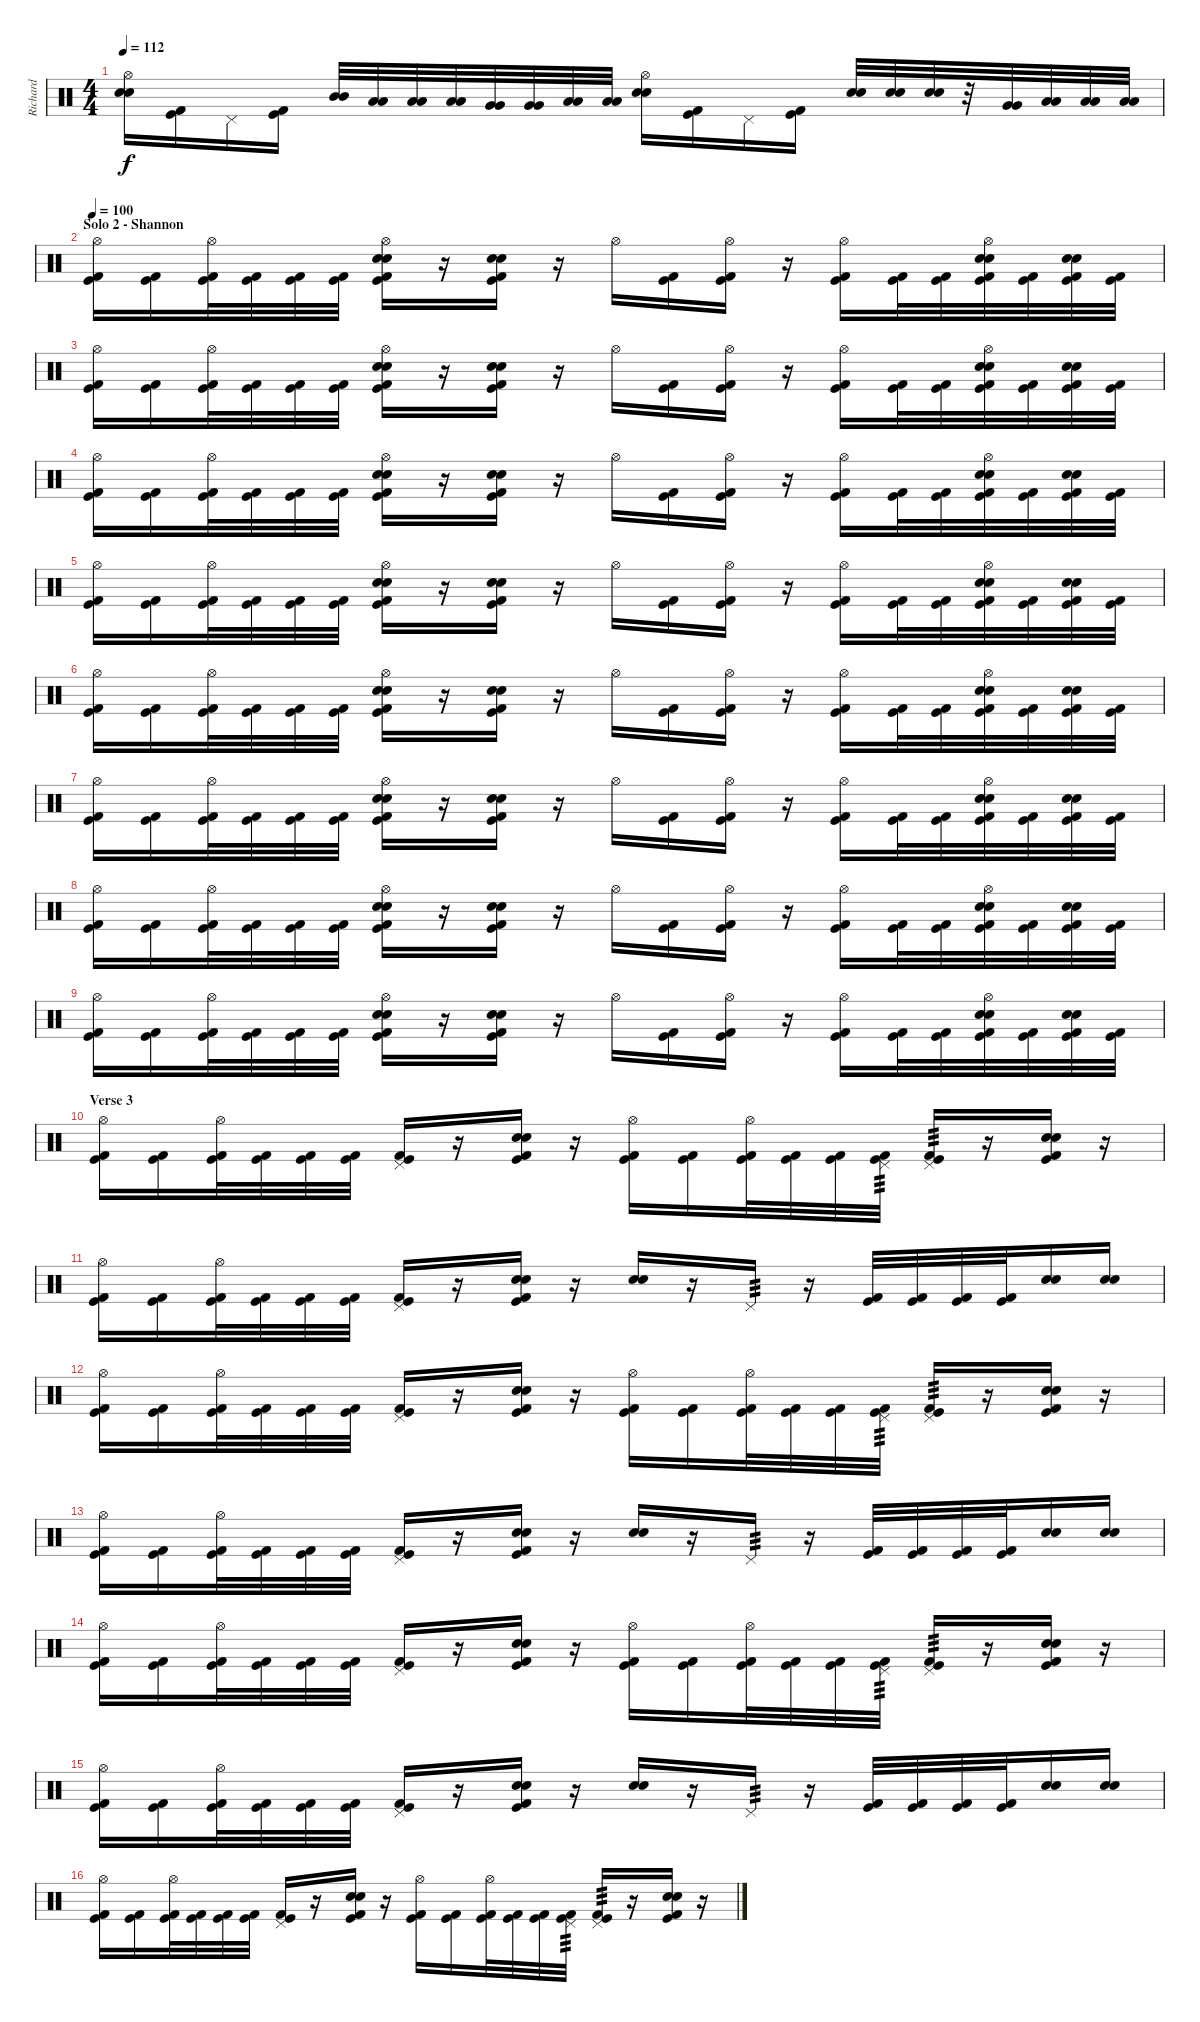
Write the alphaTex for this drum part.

\track ("Richard" "Richard") {instrument percussion}
\staff {score}
\articulation defaults
\ts (4 4)
\tempo 112
\clef neutral
\ks c
("Hi-Hat (open)" "Snare (hit) 2" "Electric Snare (hit)").16{dy f} ("Kick (hit)" "Kick (hit) 2").16 "Pedal Hi-Hat (hit)".16 ("Kick (hit)" "Kick (hit) 2").16 ("Mid Tom (hit)" "Mid Tom (hit)").32 ("Low Tom (hit)" "Low Tom (hit)").32 ("Low Tom (hit)" "Low Tom (hit)").32 ("Low Tom (hit)" "Low Tom (hit)").32 ("Very Low Tom (hit)" "Very Low Tom (hit)").32 ("Very Low Tom (hit)" "Very Low Tom (hit)").32 ("Low Floor Tom (hit)" "Low Floor Tom (hit)").32 ("Low Floor Tom (hit)" "Low Floor Tom (hit)").32 ("Hi-Hat (open)" "Snare (hit) 2" "Electric Snare (hit)").16 ("Kick (hit)" "Kick (hit) 2").16 "Pedal Hi-Hat (hit)".16 ("Kick (hit)" "Kick (hit) 2").16 ("Snare (hit) 2" "Electric Snare (hit)").32 ("Snare (hit) 2" "Electric Snare (hit)").32 ("Snare (hit) 2" "Electric Snare (hit)").32 r.32 ("Very Low Tom (hit)" "Very Low Tom (hit)").32 ("Low Floor Tom (hit)" "Low Floor Tom (hit)").32 ("Low Floor Tom (hit)" "Low Floor Tom (hit)").32 ("Low Floor Tom (hit)" "Low Floor Tom (hit)").32 |
\section ("" "Solo 2 - Shannon")
\tempo 100
("Hi-Hat (open)" "Kick (hit)" "Kick (hit) 2").16 ("Kick (hit)" "Kick (hit) 2").16 ("Hi-Hat (open)" "Kick (hit)" "Kick (hit) 2").32 ("Kick (hit)" "Kick (hit) 2").32 ("Kick (hit)" "Kick (hit) 2").32 ("Kick (hit)" "Kick (hit) 2").32 ("Hi-Hat (open)" "Snare (hit) 2" "Electric Snare (hit)" "Kick (hit)" "Kick (hit) 2").16 r.16 ("Snare (hit) 2" "Electric Snare (hit)" "Kick (hit)" "Kick (hit) 2").16 r.16 "Hi-Hat (open)".16 ("Kick (hit)" "Kick (hit) 2").16 ("Hi-Hat (open)" "Kick (hit)" "Kick (hit) 2").16 r.16 ("Hi-Hat (open)" "Kick (hit)" "Kick (hit) 2").16 ("Kick (hit)" "Kick (hit) 2").32 ("Kick (hit)" "Kick (hit) 2").32 ("Hi-Hat (open)" "Snare (hit) 2" "Electric Snare (hit)" "Kick (hit)" "Kick (hit) 2").32 ("Kick (hit)" "Kick (hit) 2").32 ("Snare (hit) 2" "Electric Snare (hit)" "Kick (hit)" "Kick (hit) 2").32 ("Kick (hit)" "Kick (hit) 2").32 |
("Hi-Hat (open)" "Kick (hit)" "Kick (hit) 2").16 ("Kick (hit)" "Kick (hit) 2").16 ("Hi-Hat (open)" "Kick (hit)" "Kick (hit) 2").32 ("Kick (hit)" "Kick (hit) 2").32 ("Kick (hit)" "Kick (hit) 2").32 ("Kick (hit)" "Kick (hit) 2").32 ("Hi-Hat (open)" "Snare (hit) 2" "Electric Snare (hit)" "Kick (hit)" "Kick (hit) 2").16 r.16 ("Snare (hit) 2" "Electric Snare (hit)" "Kick (hit)" "Kick (hit) 2").16 r.16 "Hi-Hat (open)".16 ("Kick (hit)" "Kick (hit) 2").16 ("Hi-Hat (open)" "Kick (hit)" "Kick (hit) 2").16 r.16 ("Hi-Hat (open)" "Kick (hit)" "Kick (hit) 2").16 ("Kick (hit)" "Kick (hit) 2").32 ("Kick (hit)" "Kick (hit) 2").32 ("Hi-Hat (open)" "Snare (hit) 2" "Electric Snare (hit)" "Kick (hit)" "Kick (hit) 2").32 ("Kick (hit)" "Kick (hit) 2").32 ("Snare (hit) 2" "Electric Snare (hit)" "Kick (hit)" "Kick (hit) 2").32 ("Kick (hit)" "Kick (hit) 2").32 |
("Hi-Hat (open)" "Kick (hit)" "Kick (hit) 2").16 ("Kick (hit)" "Kick (hit) 2").16 ("Hi-Hat (open)" "Kick (hit)" "Kick (hit) 2").32 ("Kick (hit)" "Kick (hit) 2").32 ("Kick (hit)" "Kick (hit) 2").32 ("Kick (hit)" "Kick (hit) 2").32 ("Hi-Hat (open)" "Snare (hit) 2" "Electric Snare (hit)" "Kick (hit)" "Kick (hit) 2").16 r.16 ("Snare (hit) 2" "Electric Snare (hit)" "Kick (hit)" "Kick (hit) 2").16 r.16 "Hi-Hat (open)".16 ("Kick (hit)" "Kick (hit) 2").16 ("Hi-Hat (open)" "Kick (hit)" "Kick (hit) 2").16 r.16 ("Hi-Hat (open)" "Kick (hit)" "Kick (hit) 2").16 ("Kick (hit)" "Kick (hit) 2").32 ("Kick (hit)" "Kick (hit) 2").32 ("Hi-Hat (open)" "Snare (hit) 2" "Electric Snare (hit)" "Kick (hit)" "Kick (hit) 2").32 ("Kick (hit)" "Kick (hit) 2").32 ("Snare (hit) 2" "Electric Snare (hit)" "Kick (hit)" "Kick (hit) 2").32 ("Kick (hit)" "Kick (hit) 2").32 |
("Hi-Hat (open)" "Kick (hit)" "Kick (hit) 2").16 ("Kick (hit)" "Kick (hit) 2").16 ("Hi-Hat (open)" "Kick (hit)" "Kick (hit) 2").32 ("Kick (hit)" "Kick (hit) 2").32 ("Kick (hit)" "Kick (hit) 2").32 ("Kick (hit)" "Kick (hit) 2").32 ("Hi-Hat (open)" "Snare (hit) 2" "Electric Snare (hit)" "Kick (hit)" "Kick (hit) 2").16 r.16 ("Snare (hit) 2" "Electric Snare (hit)" "Kick (hit)" "Kick (hit) 2").16 r.16 "Hi-Hat (open)".16 ("Kick (hit)" "Kick (hit) 2").16 ("Hi-Hat (open)" "Kick (hit)" "Kick (hit) 2").16 r.16 ("Hi-Hat (open)" "Kick (hit)" "Kick (hit) 2").16 ("Kick (hit)" "Kick (hit) 2").32 ("Kick (hit)" "Kick (hit) 2").32 ("Hi-Hat (open)" "Snare (hit) 2" "Electric Snare (hit)" "Kick (hit)" "Kick (hit) 2").32 ("Kick (hit)" "Kick (hit) 2").32 ("Snare (hit) 2" "Electric Snare (hit)" "Kick (hit)" "Kick (hit) 2").32 ("Kick (hit)" "Kick (hit) 2").32 |
("Hi-Hat (open)" "Kick (hit)" "Kick (hit) 2").16 ("Kick (hit)" "Kick (hit) 2").16 ("Hi-Hat (open)" "Kick (hit)" "Kick (hit) 2").32 ("Kick (hit)" "Kick (hit) 2").32 ("Kick (hit)" "Kick (hit) 2").32 ("Kick (hit)" "Kick (hit) 2").32 ("Hi-Hat (open)" "Snare (hit) 2" "Electric Snare (hit)" "Kick (hit)" "Kick (hit) 2").16 r.16 ("Snare (hit) 2" "Electric Snare (hit)" "Kick (hit)" "Kick (hit) 2").16 r.16 "Hi-Hat (open)".16 ("Kick (hit)" "Kick (hit) 2").16 ("Hi-Hat (open)" "Kick (hit)" "Kick (hit) 2").16 r.16 ("Hi-Hat (open)" "Kick (hit)" "Kick (hit) 2").16 ("Kick (hit)" "Kick (hit) 2").32 ("Kick (hit)" "Kick (hit) 2").32 ("Hi-Hat (open)" "Snare (hit) 2" "Electric Snare (hit)" "Kick (hit)" "Kick (hit) 2").32 ("Kick (hit)" "Kick (hit) 2").32 ("Snare (hit) 2" "Electric Snare (hit)" "Kick (hit)" "Kick (hit) 2").32 ("Kick (hit)" "Kick (hit) 2").32 |
("Hi-Hat (open)" "Kick (hit)" "Kick (hit) 2").16 ("Kick (hit)" "Kick (hit) 2").16 ("Hi-Hat (open)" "Kick (hit)" "Kick (hit) 2").32 ("Kick (hit)" "Kick (hit) 2").32 ("Kick (hit)" "Kick (hit) 2").32 ("Kick (hit)" "Kick (hit) 2").32 ("Hi-Hat (open)" "Snare (hit) 2" "Electric Snare (hit)" "Kick (hit)" "Kick (hit) 2").16 r.16 ("Snare (hit) 2" "Electric Snare (hit)" "Kick (hit)" "Kick (hit) 2").16 r.16 "Hi-Hat (open)".16 ("Kick (hit)" "Kick (hit) 2").16 ("Hi-Hat (open)" "Kick (hit)" "Kick (hit) 2").16 r.16 ("Hi-Hat (open)" "Kick (hit)" "Kick (hit) 2").16 ("Kick (hit)" "Kick (hit) 2").32 ("Kick (hit)" "Kick (hit) 2").32 ("Hi-Hat (open)" "Snare (hit) 2" "Electric Snare (hit)" "Kick (hit)" "Kick (hit) 2").32 ("Kick (hit)" "Kick (hit) 2").32 ("Snare (hit) 2" "Electric Snare (hit)" "Kick (hit)" "Kick (hit) 2").32 ("Kick (hit)" "Kick (hit) 2").32 |
("Hi-Hat (open)" "Kick (hit)" "Kick (hit) 2").16 ("Kick (hit)" "Kick (hit) 2").16 ("Hi-Hat (open)" "Kick (hit)" "Kick (hit) 2").32 ("Kick (hit)" "Kick (hit) 2").32 ("Kick (hit)" "Kick (hit) 2").32 ("Kick (hit)" "Kick (hit) 2").32 ("Hi-Hat (open)" "Snare (hit) 2" "Electric Snare (hit)" "Kick (hit)" "Kick (hit) 2").16 r.16 ("Snare (hit) 2" "Electric Snare (hit)" "Kick (hit)" "Kick (hit) 2").16 r.16 "Hi-Hat (open)".16 ("Kick (hit)" "Kick (hit) 2").16 ("Hi-Hat (open)" "Kick (hit)" "Kick (hit) 2").16 r.16 ("Hi-Hat (open)" "Kick (hit)" "Kick (hit) 2").16 ("Kick (hit)" "Kick (hit) 2").32 ("Kick (hit)" "Kick (hit) 2").32 ("Hi-Hat (open)" "Snare (hit) 2" "Electric Snare (hit)" "Kick (hit)" "Kick (hit) 2").32 ("Kick (hit)" "Kick (hit) 2").32 ("Snare (hit) 2" "Electric Snare (hit)" "Kick (hit)" "Kick (hit) 2").32 ("Kick (hit)" "Kick (hit) 2").32 |
("Hi-Hat (open)" "Kick (hit)" "Kick (hit) 2").16 ("Kick (hit)" "Kick (hit) 2").16 ("Hi-Hat (open)" "Kick (hit)" "Kick (hit) 2").32 ("Kick (hit)" "Kick (hit) 2").32 ("Kick (hit)" "Kick (hit) 2").32 ("Kick (hit)" "Kick (hit) 2").32 ("Hi-Hat (open)" "Snare (hit) 2" "Electric Snare (hit)" "Kick (hit)" "Kick (hit) 2").16 r.16 ("Snare (hit) 2" "Electric Snare (hit)" "Kick (hit)" "Kick (hit) 2").16 r.16 "Hi-Hat (open)".16 ("Kick (hit)" "Kick (hit) 2").16 ("Hi-Hat (open)" "Kick (hit)" "Kick (hit) 2").16 r.16 ("Hi-Hat (open)" "Kick (hit)" "Kick (hit) 2").16 ("Kick (hit)" "Kick (hit) 2").32 ("Kick (hit)" "Kick (hit) 2").32 ("Hi-Hat (open)" "Snare (hit) 2" "Electric Snare (hit)" "Kick (hit)" "Kick (hit) 2").32 ("Kick (hit)" "Kick (hit) 2").32 ("Snare (hit) 2" "Electric Snare (hit)" "Kick (hit)" "Kick (hit) 2").32 ("Kick (hit)" "Kick (hit) 2").32 |
\section ("" "Verse 3")
("Hi-Hat (open)" "Kick (hit)" "Kick (hit) 2").16 ("Kick (hit)" "Kick (hit) 2").16 ("Hi-Hat (open)" "Kick (hit)" "Kick (hit) 2").32 ("Kick (hit)" "Kick (hit) 2").32 ("Kick (hit)" "Kick (hit) 2").32 ("Kick (hit)" "Kick (hit) 2").32 ("Pedal Hi-Hat (hit)" "Kick (hit)" "Kick (hit) 2").16 r.16 ("Snare (hit) 2" "Electric Snare (hit)" "Kick (hit)" "Kick (hit) 2").16 r.16 ("Hi-Hat (open)" "Kick (hit)" "Kick (hit) 2").16 ("Kick (hit)" "Kick (hit) 2").16 ("Hi-Hat (open)" "Kick (hit)" "Kick (hit) 2").32 ("Kick (hit)" "Kick (hit) 2").32 ("Kick (hit)" "Kick (hit) 2").32 ("Pedal Hi-Hat (hit)" "Kick (hit)" "Kick (hit) 2").32{tp 3} ("Pedal Hi-Hat (hit)" "Kick (hit)" "Kick (hit) 2").16{tp 3} r.16 ("Snare (hit) 2" "Electric Snare (hit)" "Kick (hit)" "Kick (hit) 2").16 r.16 |
("Hi-Hat (open)" "Kick (hit)" "Kick (hit) 2").16 ("Kick (hit)" "Kick (hit) 2").16 ("Hi-Hat (open)" "Kick (hit)" "Kick (hit) 2").32 ("Kick (hit)" "Kick (hit) 2").32 ("Kick (hit)" "Kick (hit) 2").32 ("Kick (hit)" "Kick (hit) 2").32 ("Pedal Hi-Hat (hit)" "Kick (hit)" "Kick (hit) 2").16 r.16 ("Snare (hit) 2" "Electric Snare (hit)" "Kick (hit)" "Kick (hit) 2").16 r.16 ("Snare (hit) 2" "Electric Snare (hit)").16 r.16 "Pedal Hi-Hat (hit)".16{tp 3} r.16 ("Kick (hit)" "Kick (hit) 2").32 ("Kick (hit)" "Kick (hit) 2").32 ("Kick (hit)" "Kick (hit) 2").32 ("Kick (hit)" "Kick (hit) 2").32 ("Snare (hit) 2" "Electric Snare (hit)").16 ("Snare (hit) 2" "Electric Snare (hit)").16 |
("Hi-Hat (open)" "Kick (hit)" "Kick (hit) 2").16 ("Kick (hit)" "Kick (hit) 2").16 ("Hi-Hat (open)" "Kick (hit)" "Kick (hit) 2").32 ("Kick (hit)" "Kick (hit) 2").32 ("Kick (hit)" "Kick (hit) 2").32 ("Kick (hit)" "Kick (hit) 2").32 ("Pedal Hi-Hat (hit)" "Kick (hit)" "Kick (hit) 2").16 r.16 ("Snare (hit) 2" "Electric Snare (hit)" "Kick (hit)" "Kick (hit) 2").16 r.16 ("Hi-Hat (open)" "Kick (hit)" "Kick (hit) 2").16 ("Kick (hit)" "Kick (hit) 2").16 ("Hi-Hat (open)" "Kick (hit)" "Kick (hit) 2").32 ("Kick (hit)" "Kick (hit) 2").32 ("Kick (hit)" "Kick (hit) 2").32 ("Pedal Hi-Hat (hit)" "Kick (hit)" "Kick (hit) 2").32{tp 3} ("Pedal Hi-Hat (hit)" "Kick (hit)" "Kick (hit) 2").16{tp 3} r.16 ("Snare (hit) 2" "Electric Snare (hit)" "Kick (hit)" "Kick (hit) 2").16 r.16 |
("Hi-Hat (open)" "Kick (hit)" "Kick (hit) 2").16 ("Kick (hit)" "Kick (hit) 2").16 ("Hi-Hat (open)" "Kick (hit)" "Kick (hit) 2").32 ("Kick (hit)" "Kick (hit) 2").32 ("Kick (hit)" "Kick (hit) 2").32 ("Kick (hit)" "Kick (hit) 2").32 ("Pedal Hi-Hat (hit)" "Kick (hit)" "Kick (hit) 2").16 r.16 ("Snare (hit) 2" "Electric Snare (hit)" "Kick (hit)" "Kick (hit) 2").16 r.16 ("Snare (hit) 2" "Electric Snare (hit)").16 r.16 "Pedal Hi-Hat (hit)".16{tp 3} r.16 ("Kick (hit)" "Kick (hit) 2").32 ("Kick (hit)" "Kick (hit) 2").32 ("Kick (hit)" "Kick (hit) 2").32 ("Kick (hit)" "Kick (hit) 2").32 ("Snare (hit) 2" "Electric Snare (hit)").16 ("Snare (hit) 2" "Electric Snare (hit)").16 |
("Hi-Hat (open)" "Kick (hit)" "Kick (hit) 2").16 ("Kick (hit)" "Kick (hit) 2").16 ("Hi-Hat (open)" "Kick (hit)" "Kick (hit) 2").32 ("Kick (hit)" "Kick (hit) 2").32 ("Kick (hit)" "Kick (hit) 2").32 ("Kick (hit)" "Kick (hit) 2").32 ("Pedal Hi-Hat (hit)" "Kick (hit)" "Kick (hit) 2").16 r.16 ("Snare (hit) 2" "Electric Snare (hit)" "Kick (hit)" "Kick (hit) 2").16 r.16 ("Hi-Hat (open)" "Kick (hit)" "Kick (hit) 2").16 ("Kick (hit)" "Kick (hit) 2").16 ("Hi-Hat (open)" "Kick (hit)" "Kick (hit) 2").32 ("Kick (hit)" "Kick (hit) 2").32 ("Kick (hit)" "Kick (hit) 2").32 ("Pedal Hi-Hat (hit)" "Kick (hit)" "Kick (hit) 2").32{tp 3} ("Pedal Hi-Hat (hit)" "Kick (hit)" "Kick (hit) 2").16{tp 3} r.16 ("Snare (hit) 2" "Electric Snare (hit)" "Kick (hit)" "Kick (hit) 2").16 r.16 |
("Hi-Hat (open)" "Kick (hit)" "Kick (hit) 2").16 ("Kick (hit)" "Kick (hit) 2").16 ("Hi-Hat (open)" "Kick (hit)" "Kick (hit) 2").32 ("Kick (hit)" "Kick (hit) 2").32 ("Kick (hit)" "Kick (hit) 2").32 ("Kick (hit)" "Kick (hit) 2").32 ("Pedal Hi-Hat (hit)" "Kick (hit)" "Kick (hit) 2").16 r.16 ("Snare (hit) 2" "Electric Snare (hit)" "Kick (hit)" "Kick (hit) 2").16 r.16 ("Snare (hit) 2" "Electric Snare (hit)").16 r.16 "Pedal Hi-Hat (hit)".16{tp 3} r.16 ("Kick (hit)" "Kick (hit) 2").32 ("Kick (hit)" "Kick (hit) 2").32 ("Kick (hit)" "Kick (hit) 2").32 ("Kick (hit)" "Kick (hit) 2").32 ("Snare (hit) 2" "Electric Snare (hit)").16 ("Snare (hit) 2" "Electric Snare (hit)").16 |
("Hi-Hat (open)" "Kick (hit)" "Kick (hit) 2").16 ("Kick (hit)" "Kick (hit) 2").16 ("Hi-Hat (open)" "Kick (hit)" "Kick (hit) 2").32 ("Kick (hit)" "Kick (hit) 2").32 ("Kick (hit)" "Kick (hit) 2").32 ("Kick (hit)" "Kick (hit) 2").32 ("Pedal Hi-Hat (hit)" "Kick (hit)" "Kick (hit) 2").16 r.16 ("Snare (hit) 2" "Electric Snare (hit)" "Kick (hit)" "Kick (hit) 2").16 r.16 ("Hi-Hat (open)" "Kick (hit)" "Kick (hit) 2").16 ("Kick (hit)" "Kick (hit) 2").16 ("Hi-Hat (open)" "Kick (hit)" "Kick (hit) 2").32 ("Kick (hit)" "Kick (hit) 2").32 ("Kick (hit)" "Kick (hit) 2").32 ("Pedal Hi-Hat (hit)" "Kick (hit)" "Kick (hit) 2").32{tp 3} ("Pedal Hi-Hat (hit)" "Kick (hit)" "Kick (hit) 2").16{tp 3} r.16 ("Snare (hit) 2" "Electric Snare (hit)" "Kick (hit)" "Kick (hit) 2").16 r.16
